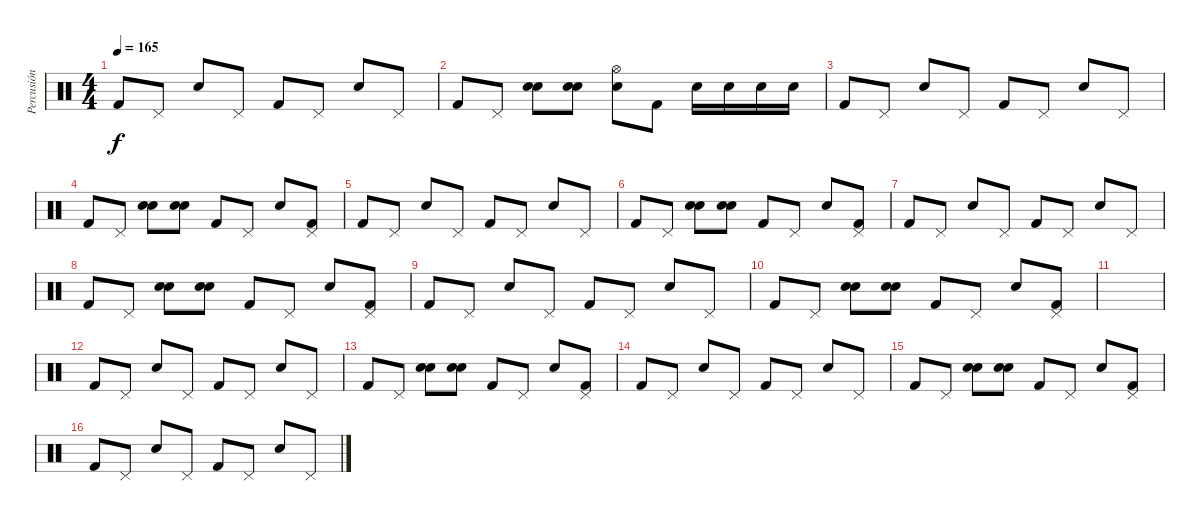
\track ("Percusión" "Percusión") {instrument percussion}
\staff {score}
\articulation defaults
\ts (4 4)
\tempo 165
\clef neutral
\ks c "Kick (hit) 2".8{dy f} "Pedal Hi-Hat (hit)".8 "Snare (hit) 2".8 "Pedal Hi-Hat (hit)".8 "Kick (hit) 2".8 "Pedal Hi-Hat (hit)".8 "Snare (hit) 2".8 "Pedal Hi-Hat (hit)".8
|
"Kick (hit) 2".8 "Pedal Hi-Hat (hit)".8 ("Snare (hit) 2" "Snare (hit) 2").8 ("Snare (hit) 2" "Snare (hit) 2").8 ("Hi-Hat (open)" "Snare (hit) 2").8 "Kick (hit) 2".8 "Snare (hit) 2".16 "Snare (hit) 2".16 "Snare (hit) 2".16 "Snare (hit) 2".16 |
"Kick (hit) 2".8 "Pedal Hi-Hat (hit)".8 "Snare (hit) 2".8 "Pedal Hi-Hat (hit)".8 "Kick (hit) 2".8 "Pedal Hi-Hat (hit)".8 "Snare (hit) 2".8 "Pedal Hi-Hat (hit)".8 |
"Kick (hit) 2".8 "Pedal Hi-Hat (hit)".8 ("Snare (hit) 2" "Snare (hit) 2").8 ("Snare (hit) 2" "Snare (hit) 2").8 "Kick (hit) 2".8 "Pedal Hi-Hat (hit)".8 "Snare (hit) 2".8 ("Kick (hit) 2" "Pedal Hi-Hat (hit)").8 |
"Kick (hit) 2".8 "Pedal Hi-Hat (hit)".8 "Snare (hit) 2".8 "Pedal Hi-Hat (hit)".8 "Kick (hit) 2".8 "Pedal Hi-Hat (hit)".8 "Snare (hit) 2".8 "Pedal Hi-Hat (hit)".8 |
"Kick (hit) 2".8 "Pedal Hi-Hat (hit)".8 ("Snare (hit) 2" "Snare (hit) 2").8 ("Snare (hit) 2" "Snare (hit) 2").8 "Kick (hit) 2".8 "Pedal Hi-Hat (hit)".8 "Snare (hit) 2".8 ("Kick (hit) 2" "Pedal Hi-Hat (hit)").8 |
"Kick (hit) 2".8 "Pedal Hi-Hat (hit)".8 "Snare (hit) 2".8 "Pedal Hi-Hat (hit)".8 "Kick (hit) 2".8 "Pedal Hi-Hat (hit)".8 "Snare (hit) 2".8 "Pedal Hi-Hat (hit)".8 |
"Kick (hit) 2".8 "Pedal Hi-Hat (hit)".8 ("Snare (hit) 2" "Snare (hit) 2").8 ("Snare (hit) 2" "Snare (hit) 2").8 "Kick (hit) 2".8 "Pedal Hi-Hat (hit)".8 "Snare (hit) 2".8 ("Kick (hit) 2" "Pedal Hi-Hat (hit)").8 |
"Kick (hit) 2".8 "Pedal Hi-Hat (hit)".8 "Snare (hit) 2".8 "Pedal Hi-Hat (hit)".8 "Kick (hit) 2".8 "Pedal Hi-Hat (hit)".8 "Snare (hit) 2".8 "Pedal Hi-Hat (hit)".8 |
"Kick (hit) 2".8 "Pedal Hi-Hat (hit)".8 ("Snare (hit) 2" "Snare (hit) 2").8 ("Snare (hit) 2" "Snare (hit) 2").8 "Kick (hit) 2".8 "Pedal Hi-Hat (hit)".8 "Snare (hit) 2".8 ("Kick (hit) 2" "Pedal Hi-Hat (hit)").8 |
|
"Kick (hit) 2".8 "Pedal Hi-Hat (hit)".8 "Snare (hit) 2".8 "Pedal Hi-Hat (hit)".8 "Kick (hit) 2".8 "Pedal Hi-Hat (hit)".8 "Snare (hit) 2".8 "Pedal Hi-Hat (hit)".8 |
"Kick (hit) 2".8 "Pedal Hi-Hat (hit)".8 ("Snare (hit) 2" "Snare (hit) 2").8 ("Snare (hit) 2" "Snare (hit) 2").8 "Kick (hit) 2".8 "Pedal Hi-Hat (hit)".8 "Snare (hit) 2".8 ("Kick (hit) 2" "Pedal Hi-Hat (hit)").8 |
"Kick (hit) 2".8 "Pedal Hi-Hat (hit)".8 "Snare (hit) 2".8 "Pedal Hi-Hat (hit)".8 "Kick (hit) 2".8 "Pedal Hi-Hat (hit)".8 "Snare (hit) 2".8 "Pedal Hi-Hat (hit)".8 |
"Kick (hit) 2".8 "Pedal Hi-Hat (hit)".8 ("Snare (hit) 2" "Snare (hit) 2").8 ("Snare (hit) 2" "Snare (hit) 2").8 "Kick (hit) 2".8 "Pedal Hi-Hat (hit)".8 "Snare (hit) 2".8 ("Kick (hit) 2" "Pedal Hi-Hat (hit)").8 |
"Kick (hit) 2".8 "Pedal Hi-Hat (hit)".8 "Snare (hit) 2".8 "Pedal Hi-Hat (hit)".8 "Kick (hit) 2".8 "Pedal Hi-Hat (hit)".8 "Snare (hit) 2".8 "Pedal Hi-Hat (hit)".8
